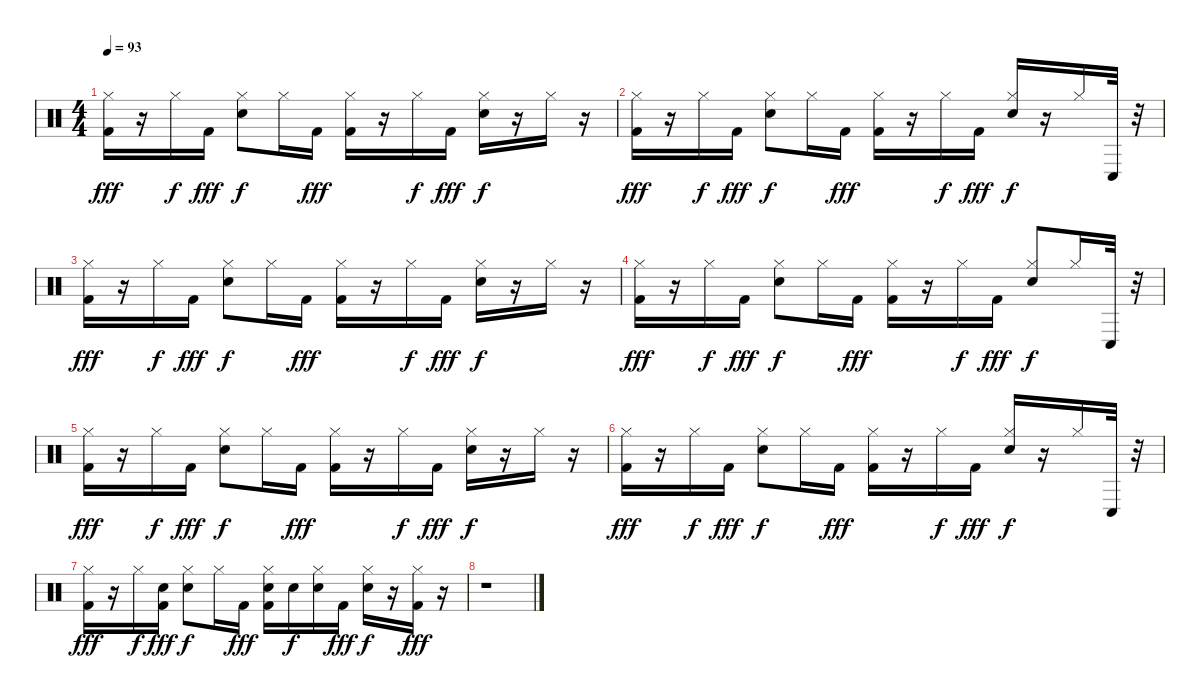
\track "" {instrument percussion}
\staff {score}
\articulation defaults
\ts (4 4)
\tempo 93
\clef neutral
\ks c
("Kick (hit) 2" "Hi-Hat (closed)").16{dy fff} r.16 "Hi-Hat (closed)".16{dy f} "Kick (hit) 2".16{dy fff} ("Snare (hit) 2" "Hi-Hat (closed)").8{dy f} "Hi-Hat (closed)".16 "Kick (hit) 2".16{dy fff} ("Kick (hit) 2" "Hi-Hat (closed)").16 r.16 "Hi-Hat (closed)".16{dy f} "Kick (hit) 2".16{dy fff} ("Snare (hit) 2" "Hi-Hat (closed)").16{dy f} r.16 "Hi-Hat (closed)".16 r.16 |
("Kick (hit) 2" "Hi-Hat (closed)").16{dy fff} r.16 "Hi-Hat (closed)".16{dy f} "Kick (hit) 2".16{dy fff} ("Snare (hit) 2" "Hi-Hat (closed)").8{dy f} "Hi-Hat (closed)".16 "Kick (hit) 2".16{dy fff} ("Kick (hit) 2" "Hi-Hat (closed)").16 r.16 "Hi-Hat (closed)".16{dy f} "Kick (hit) 2".16{dy fff} ("Snare (hit) 2" "Hi-Hat (closed)").16{dy f} r.16 "Hi-Hat (closed)".16 "Conga low (hit)".32 r.32 |
("Kick (hit) 2" "Hi-Hat (closed)").16{dy fff} r.16 "Hi-Hat (closed)".16{dy f} "Kick (hit) 2".16{dy fff} ("Snare (hit) 2" "Hi-Hat (closed)").8{dy f} "Hi-Hat (closed)".16 "Kick (hit) 2".16{dy fff} ("Kick (hit) 2" "Hi-Hat (closed)").16 r.16 "Hi-Hat (closed)".16{dy f} "Kick (hit) 2".16{dy fff} ("Snare (hit) 2" "Hi-Hat (closed)").16{dy f} r.16 "Hi-Hat (closed)".16 r.16 |
("Kick (hit) 2" "Hi-Hat (closed)").16{dy fff} r.16 "Hi-Hat (closed)".16{dy f} "Kick (hit) 2".16{dy fff} ("Snare (hit) 2" "Hi-Hat (closed)").8{dy f} "Hi-Hat (closed)".16 "Kick (hit) 2".16{dy fff} ("Kick (hit) 2" "Hi-Hat (closed)").16 r.16 "Hi-Hat (closed)".16{dy f} "Kick (hit) 2".16{dy fff} ("Snare (hit) 2" "Hi-Hat (closed)").8{dy f} "Hi-Hat (closed)".16 "Conga low (hit)".32 r.32 |
("Kick (hit) 2" "Hi-Hat (closed)").16{dy fff} r.16 "Hi-Hat (closed)".16{dy f} "Kick (hit) 2".16{dy fff} ("Snare (hit) 2" "Hi-Hat (closed)").8{dy f} "Hi-Hat (closed)".16 "Kick (hit) 2".16{dy fff} ("Kick (hit) 2" "Hi-Hat (closed)").16 r.16 "Hi-Hat (closed)".16{dy f} "Kick (hit) 2".16{dy fff} ("Snare (hit) 2" "Hi-Hat (closed)").16{dy f} r.16 "Hi-Hat (closed)".16 r.16 |
("Kick (hit) 2" "Hi-Hat (closed)").16{dy fff} r.16 "Hi-Hat (closed)".16{dy f} "Kick (hit) 2".16{dy fff} ("Snare (hit) 2" "Hi-Hat (closed)").8{dy f} "Hi-Hat (closed)".16 "Kick (hit) 2".16{dy fff} ("Kick (hit) 2" "Hi-Hat (closed)").16 r.16 "Hi-Hat (closed)".16{dy f} "Kick (hit) 2".16{dy fff} ("Snare (hit) 2" "Hi-Hat (closed)").16{dy f} r.16 "Hi-Hat (closed)".16 "Conga low (hit)".32 r.32 |
("Kick (hit) 2" "Hi-Hat (closed)").16{dy fff} r.16 "Hi-Hat (closed)".16{dy f} ("Kick (hit) 2" "Snare (hit) 2").16{dy fff} ("Snare (hit) 2" "Hi-Hat (closed)").8{dy f} "Hi-Hat (closed)".16 "Kick (hit) 2".16{dy fff} ("Kick (hit) 2" "Snare (hit) 2" "Hi-Hat (closed)").16 "Snare (hit) 2".16{dy f} ("Snare (hit) 2" "Hi-Hat (closed)").16 "Kick (hit) 2".16{dy fff} ("Snare (hit) 2" "Hi-Hat (closed)").16{dy f} r.16 ("Kick (hit) 2" "Hi-Hat (closed)").16{dy fff} r.16 |
r.1
